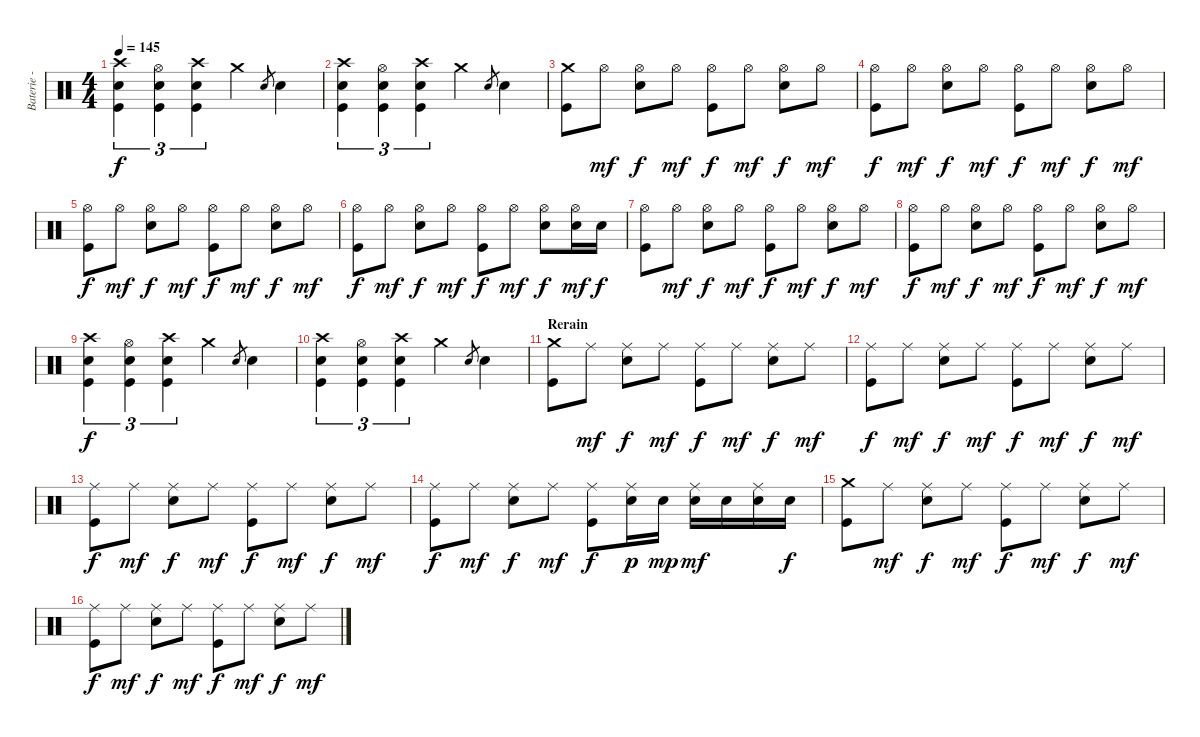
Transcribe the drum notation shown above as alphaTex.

\track ("Baterie - Alex" "Baterie - ") {instrument percussion}
\staff {score}
\articulation defaults
\ts (4 4)
\tempo 145
\clef neutral
\ks c
("Crash high (hit)" "Electric Snare (hit)" "Kick (hit)").4{tu (3 2) dy f} ("Hi-Hat (open)" "Electric Snare (hit)" "Kick (hit)").4{tu (3 2)} ("Crash high (hit)" "Electric Snare (hit)" "Kick (hit)").4{tu (3 2)} "Crash medium (hit)".4 "Electric Snare (hit)".8{gr} "Electric Snare (hit)".4 |
("Crash high (hit)" "Electric Snare (hit)" "Kick (hit)").4{tu (3 2)} ("Hi-Hat (open)" "Electric Snare (hit)" "Kick (hit)").4{tu (3 2)} ("Crash high (hit)" "Electric Snare (hit)" "Kick (hit)").4{tu (3 2)} "Crash medium (hit)".4 "Electric Snare (hit)".8{gr} "Electric Snare (hit)".4 |
("Crash medium (hit)" "Kick (hit)").8 "Hi-Hat (open)".8{dy mf} ("Hi-Hat (open)" "Electric Snare (hit)").8{dy f} "Hi-Hat (open)".8{dy mf} ("Hi-Hat (open)" "Kick (hit)").8{dy f} "Hi-Hat (open)".8{dy mf} ("Hi-Hat (open)" "Electric Snare (hit)").8{dy f} "Hi-Hat (open)".8{dy mf} |
("Hi-Hat (open)" "Kick (hit)").8{dy f} "Hi-Hat (open)".8{dy mf} ("Hi-Hat (open)" "Electric Snare (hit)").8{dy f} "Hi-Hat (open)".8{dy mf} ("Hi-Hat (open)" "Kick (hit)").8{dy f} "Hi-Hat (open)".8{dy mf} ("Hi-Hat (open)" "Electric Snare (hit)").8{dy f} "Hi-Hat (open)".8{dy mf} |
("Hi-Hat (open)" "Kick (hit)").8{dy f} "Hi-Hat (open)".8{dy mf} ("Hi-Hat (open)" "Electric Snare (hit)").8{dy f} "Hi-Hat (open)".8{dy mf} ("Hi-Hat (open)" "Kick (hit)").8{dy f} "Hi-Hat (open)".8{dy mf} ("Hi-Hat (open)" "Electric Snare (hit)").8{dy f} "Hi-Hat (open)".8{dy mf} |
("Hi-Hat (open)" "Kick (hit)").8{dy f} "Hi-Hat (open)".8{dy mf} ("Hi-Hat (open)" "Electric Snare (hit)").8{dy f} "Hi-Hat (open)".8{dy mf} ("Hi-Hat (open)" "Kick (hit)").8{dy f} "Hi-Hat (open)".8{dy mf} ("Hi-Hat (open)" "Electric Snare (hit)").8{dy f} ("Hi-Hat (open)" "Electric Snare (hit)").16{dy mf} "Electric Snare (hit)".16{dy f} |
("Hi-Hat (open)" "Kick (hit)").8 "Hi-Hat (open)".8{dy mf} ("Hi-Hat (open)" "Electric Snare (hit)").8{dy f} "Hi-Hat (open)".8{dy mf} ("Hi-Hat (open)" "Kick (hit)").8{dy f} "Hi-Hat (open)".8{dy mf} ("Hi-Hat (open)" "Electric Snare (hit)").8{dy f} "Hi-Hat (open)".8{dy mf} |
("Hi-Hat (open)" "Kick (hit)").8{dy f} "Hi-Hat (open)".8{dy mf} ("Hi-Hat (open)" "Electric Snare (hit)").8{dy f} "Hi-Hat (open)".8{dy mf} ("Hi-Hat (open)" "Kick (hit)").8{dy f} "Hi-Hat (open)".8{dy mf} ("Hi-Hat (open)" "Electric Snare (hit)").8{dy f} "Hi-Hat (open)".8{dy mf} |
("Crash high (hit)" "Electric Snare (hit)" "Kick (hit)").4{tu (3 2) dy f} ("Hi-Hat (open)" "Electric Snare (hit)" "Kick (hit)").4{tu (3 2)} ("Crash high (hit)" "Electric Snare (hit)" "Kick (hit)").4{tu (3 2)} "Crash medium (hit)".4 "Electric Snare (hit)".8{gr} "Electric Snare (hit)".4 |
("Crash high (hit)" "Electric Snare (hit)" "Kick (hit)").4{tu (3 2)} ("Hi-Hat (open)" "Electric Snare (hit)" "Kick (hit)").4{tu (3 2)} ("Crash high (hit)" "Electric Snare (hit)" "Kick (hit)").4{tu (3 2)} "Crash medium (hit)".4 "Electric Snare (hit)".8{gr} "Electric Snare (hit)".4 |
\section ("" "Rerain")
("Crash medium (hit)" "Kick (hit)").8 "Ride (middle)".8{dy mf} ("Ride (middle)" "Electric Snare (hit)").8{dy f} "Ride (middle)".8{dy mf} ("Ride (middle)" "Kick (hit)").8{dy f} "Ride (middle)".8{dy mf} ("Ride (middle)" "Electric Snare (hit)").8{dy f} "Ride (middle)".8{dy mf} |
("Ride (middle)" "Kick (hit)").8{dy f} "Ride (middle)".8{dy mf} ("Ride (middle)" "Electric Snare (hit)").8{dy f} "Ride (middle)".8{dy mf} ("Ride (middle)" "Kick (hit)").8{dy f} "Ride (middle)".8{dy mf} ("Ride (middle)" "Electric Snare (hit)").8{dy f} "Ride (middle)".8{dy mf} |
("Ride (middle)" "Kick (hit)").8{dy f} "Ride (middle)".8{dy mf} ("Ride (middle)" "Electric Snare (hit)").8{dy f} "Ride (middle)".8{dy mf} ("Ride (middle)" "Kick (hit)").8{dy f} "Ride (middle)".8{dy mf} ("Ride (middle)" "Electric Snare (hit)").8{dy f} "Ride (middle)".8{dy mf} |
("Ride (middle)" "Kick (hit)").8{dy f} "Ride (middle)".8{dy mf} ("Ride (middle)" "Electric Snare (hit)").8{dy f} "Ride (middle)".8{dy mf} ("Ride (middle)" "Kick (hit)").8{dy f} ("Ride (middle)" "Electric Snare (hit)").16{dy p} "Electric Snare (hit)".16{dy mp} ("Ride (middle)" "Electric Snare (hit)").16{dy mf} "Electric Snare (hit)".16 ("Ride (middle)" "Electric Snare (hit)").16 "Electric Snare (hit)".16{dy f} |
("Crash medium (hit)" "Kick (hit)").8 "Ride (middle)".8{dy mf} ("Ride (middle)" "Electric Snare (hit)").8{dy f} "Ride (middle)".8{dy mf} ("Ride (middle)" "Kick (hit)").8{dy f} "Ride (middle)".8{dy mf} ("Ride (middle)" "Electric Snare (hit)").8{dy f} "Ride (middle)".8{dy mf} |
("Ride (middle)" "Kick (hit)").8{dy f} "Ride (middle)".8{dy mf} ("Ride (middle)" "Electric Snare (hit)").8{dy f} "Ride (middle)".8{dy mf} ("Ride (middle)" "Kick (hit)").8{dy f} "Ride (middle)".8{dy mf} ("Ride (middle)" "Electric Snare (hit)").8{dy f} "Ride (middle)".8{dy mf}
